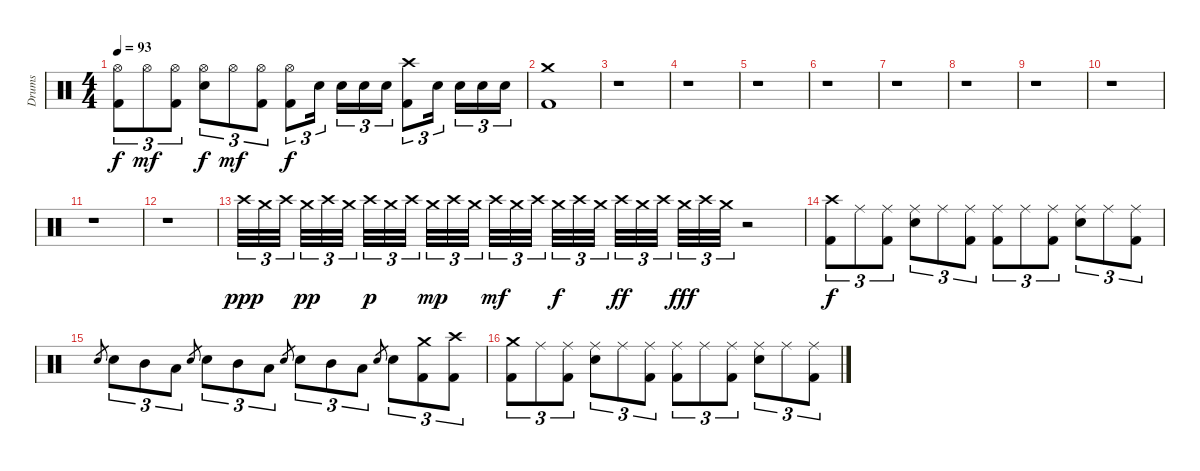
\track ("Drums" "Drums") {instrument percussion}
\staff {score}
\articulation defaults
\ts (4 4)
\tempo 93
\clef neutral
\ks c
("Hi-Hat (open)" "Kick (hit) 2").8{tu (3 2) dy f} "Hi-Hat (open)".8{tu (3 2) dy mf} ("Hi-Hat (open)" "Kick (hit) 2").8{tu (3 2)} ("Hi-Hat (open)" "Snare (hit) 2").8{tu (3 2) dy f} "Hi-Hat (open)".8{tu (3 2) dy mf} ("Hi-Hat (open)" "Kick (hit) 2").8{tu (3 2)} ("Hi-Hat (open)" "Kick (hit) 2").8{tu (3 2) dy f} "Snare (hit) 2".16{tu (3 2)} "Snare (hit) 2".16{tu (3 2)} "Snare (hit) 2".16{tu (3 2)} "Snare (hit) 2".16{tu (3 2)} ("Crash high (hit)" "Kick (hit) 2").8{tu (3 2)} "Snare (hit) 2".16{tu (3 2)} "Snare (hit) 2".16{tu (3 2)} "Snare (hit) 2".16{tu (3 2)} "Snare (hit) 2".16{tu (3 2)} |
("Crash medium (hit)" "Kick (hit) 2").1 |
r.1 |
r.1 |
r.1 |
r.1 |
r.1 |
r.1 |
r.1 |
r.1 |
r.1 |
r.1 |
"Crash high (hit)".32{tu (3 2) dy ppp} "Crash medium (hit)".32{tu (3 2)} "Crash high (hit)".32{tu (3 2)} "Crash medium (hit)".32{tu (3 2) dy pp} "Crash high (hit)".32{tu (3 2)} "Crash medium (hit)".32{tu (3 2)} "Crash high (hit)".32{tu (3 2) dy p} "Crash medium (hit)".32{tu (3 2)} "Crash high (hit)".32{tu (3 2)} "Crash medium (hit)".32{tu (3 2) dy mp} "Crash high (hit)".32{tu (3 2)} "Crash medium (hit)".32{tu (3 2)} "Crash high (hit)".32{tu (3 2) dy mf} "Crash medium (hit)".32{tu (3 2)} "Crash high (hit)".32{tu (3 2)} "Crash medium (hit)".32{tu (3 2) dy f} "Crash high (hit)".32{tu (3 2)} "Crash medium (hit)".32{tu (3 2)} "Crash high (hit)".32{tu (3 2) dy ff} "Crash medium (hit)".32{tu (3 2)} "Crash high (hit)".32{tu (3 2)} "Crash medium (hit)".32{tu (3 2) dy fff} "Crash high (hit)".32{tu (3 2)} "Crash medium (hit)".32{tu (3 2)} r.2 |
("Crash high (hit)" "Kick (hit) 2").8{tu (3 2) dy f} "Ride (middle)".8{tu (3 2)} ("Ride (middle)" "Kick (hit) 2").8{tu (3 2)} ("Ride (middle)" "Snare (hit) 2").8{tu (3 2)} "Ride (middle)".8{tu (3 2)} ("Ride (middle)" "Kick (hit) 2").8{tu (3 2)} ("Ride (middle)" "Kick (hit) 2").8{tu (3 2)} "Ride (middle)".8{tu (3 2)} ("Ride (middle)" "Kick (hit) 2").8{tu (3 2)} ("Ride (middle)" "Snare (hit) 2").8{tu (3 2)} "Ride (middle)".8{tu (3 2)} ("Ride (middle)" "Kick (hit) 2").8{tu (3 2)} |
"Snare (hit) 2".8{gr} "Snare (hit) 2".8{tu (3 2)} "Mid Tom (hit)".8{tu (3 2)} "Low Tom (hit)".8{tu (3 2)} "Snare (hit) 2".8{gr} "Snare (hit) 2".8{tu (3 2)} "Mid Tom (hit)".8{tu (3 2)} "Low Tom (hit)".8{tu (3 2)} "Snare (hit) 2".8{gr} "Snare (hit) 2".8{tu (3 2)} "Mid Tom (hit)".8{tu (3 2)} "Low Tom (hit)".8{tu (3 2)} "Snare (hit) 2".8{gr} "Snare (hit) 2".8{tu (3 2)} ("Crash medium (hit)" "Kick (hit) 2").8{tu (3 2)} ("Crash high (hit)" "Kick (hit) 2").8{tu (3 2)} |
("Crash medium (hit)" "Kick (hit) 2").8{tu (3 2)} "Ride (middle)".8{tu (3 2)} ("Ride (middle)" "Kick (hit) 2").8{tu (3 2)} ("Ride (middle)" "Snare (hit) 2").8{tu (3 2)} "Ride (middle)".8{tu (3 2)} ("Ride (middle)" "Kick (hit) 2").8{tu (3 2)} ("Ride (middle)" "Kick (hit) 2").8{tu (3 2)} "Ride (middle)".8{tu (3 2)} ("Ride (middle)" "Kick (hit) 2").8{tu (3 2)} ("Ride (middle)" "Snare (hit) 2").8{tu (3 2)} "Ride (middle)".8{tu (3 2)} ("Ride (middle)" "Kick (hit) 2").8{tu (3 2)}
